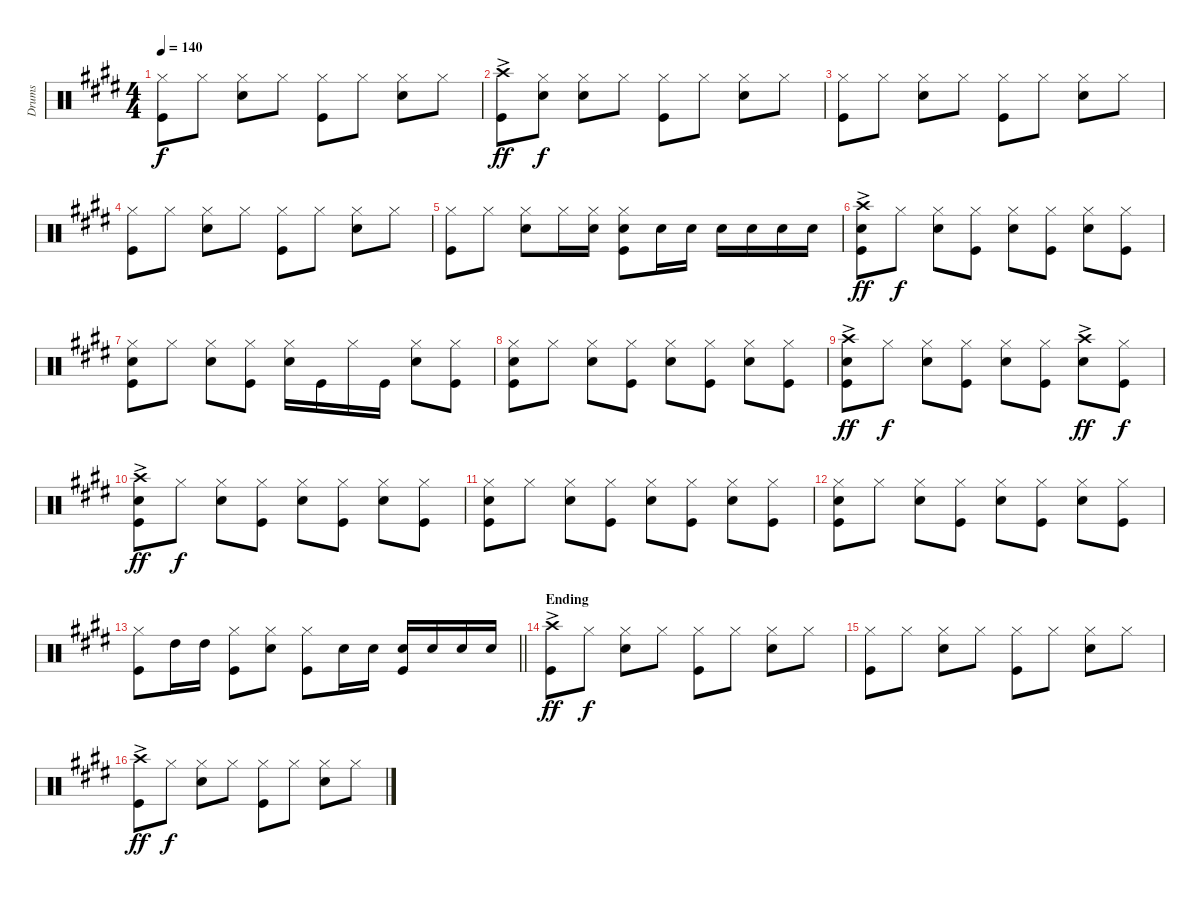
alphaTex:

\track ("Drums" "Drums") {instrument percussion}
\staff {score}
\articulation defaults
\ts (4 4)
\tempo 140
\clef neutral
\ks e
("Hi-Hat (closed)" "Kick (hit)").8{dy f} "Hi-Hat (closed)".8 ("Hi-Hat (closed)" "Snare (hit) 2").8 "Hi-Hat (closed)".8 ("Hi-Hat (closed)" "Kick (hit)").8 "Hi-Hat (closed)".8 ("Hi-Hat (closed)" "Snare (hit) 2").8 "Hi-Hat (closed)".8 |
("Crash high (hit)"{ac} "Kick (hit)").8{dy ff} ("Hi-Hat (closed)" "Snare (hit) 2").8{dy f} ("Hi-Hat (closed)" "Snare (hit) 2").8 "Hi-Hat (closed)".8 ("Hi-Hat (closed)" "Kick (hit)").8 "Hi-Hat (closed)".8 ("Hi-Hat (closed)" "Snare (hit) 2").8 "Hi-Hat (closed)".8 |
("Hi-Hat (closed)" "Kick (hit)").8 "Hi-Hat (closed)".8 ("Hi-Hat (closed)" "Snare (hit) 2").8 "Hi-Hat (closed)".8 ("Hi-Hat (closed)" "Kick (hit)").8 "Hi-Hat (closed)".8 ("Hi-Hat (closed)" "Snare (hit) 2").8 "Hi-Hat (closed)".8 |
("Hi-Hat (closed)" "Kick (hit)").8 "Hi-Hat (closed)".8 ("Hi-Hat (closed)" "Snare (hit) 2").8 "Hi-Hat (closed)".8 ("Hi-Hat (closed)" "Kick (hit)").8 "Hi-Hat (closed)".8 ("Hi-Hat (closed)" "Snare (hit) 2").8 "Hi-Hat (closed)".8 |
("Hi-Hat (closed)" "Kick (hit)").8 "Hi-Hat (closed)".8 ("Hi-Hat (closed)" "Snare (hit) 2").8 "Hi-Hat (closed)".16 ("Hi-Hat (closed)" "Snare (hit) 2").16 ("Snare (hit) 2" "Kick (hit)" "Hi-Hat (closed)").8 "Snare (hit) 2".16 "Snare (hit) 2".16 "Snare (hit) 2".16 "Snare (hit) 2".16 "Snare (hit) 2".16 "Snare (hit) 2".16 |
("Crash high (hit)"{ac} "Kick (hit)" "Snare (hit) 2").8{dy ff} "Hi-Hat (closed)".8{dy f} ("Snare (hit) 2" "Hi-Hat (closed)").8 ("Hi-Hat (closed)" "Kick (hit)").8 ("Hi-Hat (closed)" "Snare (hit) 2").8 ("Hi-Hat (closed)" "Kick (hit)").8 ("Hi-Hat (closed)" "Snare (hit) 2").8 ("Hi-Hat (closed)" "Kick (hit)").8 |
("Kick (hit)" "Snare (hit) 2" "Hi-Hat (closed)").8 "Hi-Hat (closed)".8 ("Hi-Hat (closed)" "Snare (hit) 2").8 ("Hi-Hat (closed)" "Kick (hit)").8 ("Hi-Hat (closed)" "Snare (hit) 2").16 "Kick (hit)".16 "Hi-Hat (closed)".16 "Kick (hit)".16 ("Snare (hit) 2" "Hi-Hat (closed)").8 ("Hi-Hat (closed)" "Kick (hit)").8 |
("Hi-Hat (closed)" "Kick (hit)" "Snare (hit) 2").8 "Hi-Hat (closed)".8 ("Hi-Hat (closed)" "Snare (hit) 2").8 ("Hi-Hat (closed)" "Kick (hit)").8 ("Hi-Hat (closed)" "Snare (hit) 2").8 ("Hi-Hat (closed)" "Kick (hit)").8 ("Snare (hit) 2" "Hi-Hat (closed)").8 ("Hi-Hat (closed)" "Kick (hit)").8 |
("Crash high (hit)"{ac} "Snare (hit) 2" "Kick (hit)").8{dy ff} "Hi-Hat (closed)".8{dy f} ("Hi-Hat (closed)" "Snare (hit) 2").8 ("Hi-Hat (closed)" "Kick (hit)").8 ("Hi-Hat (closed)" "Snare (hit) 2").8 ("Hi-Hat (closed)" "Kick (hit)").8 ("Crash high (hit)"{ac} "Snare (hit) 2").8{dy ff} ("Hi-Hat (closed)" "Kick (hit)").8{dy f} |
("Crash high (hit)"{ac} "Snare (hit) 2" "Kick (hit)").8{dy ff} "Hi-Hat (closed)".8{dy f} ("Hi-Hat (closed)" "Snare (hit) 2").8 ("Hi-Hat (closed)" "Kick (hit)").8 ("Hi-Hat (closed)" "Snare (hit) 2").8 ("Hi-Hat (closed)" "Kick (hit)").8 ("Hi-Hat (closed)" "Snare (hit) 2").8 ("Hi-Hat (closed)" "Kick (hit)").8 |
("Hi-Hat (closed)" "Snare (hit) 2" "Kick (hit)").8 "Hi-Hat (closed)".8 ("Hi-Hat (closed)" "Snare (hit) 2").8 ("Hi-Hat (closed)" "Kick (hit)").8 ("Hi-Hat (closed)" "Snare (hit) 2").8 ("Hi-Hat (closed)" "Kick (hit)").8 ("Hi-Hat (closed)" "Snare (hit) 2").8 ("Hi-Hat (closed)" "Kick (hit)").8 |
("Hi-Hat (closed)" "Snare (hit) 2" "Kick (hit)").8 "Hi-Hat (closed)".8 ("Hi-Hat (closed)" "Snare (hit) 2").8 ("Hi-Hat (closed)" "Kick (hit)").8 ("Hi-Hat (closed)" "Snare (hit) 2").8 ("Hi-Hat (closed)" "Kick (hit)").8 ("Hi-Hat (closed)" "Snare (hit) 2").8 ("Hi-Hat (closed)" "Kick (hit)").8 |
\barLineRight lightlight
("Hi-Hat (closed)" "Kick (hit)").8 "High Tom (hit)".16 "High Tom (hit)".16 ("Hi-Hat (closed)" "Kick (hit)").8 ("Hi-Hat (closed)" "Snare (hit) 2").8 ("Hi-Hat (closed)" "Kick (hit)").8 "Snare (hit) 2".16 "Snare (hit) 2".16 ("Snare (hit) 2" "Kick (hit)").16 "Snare (hit) 2".16 "Snare (hit) 2".16 "Snare (hit) 2".16 |
\section ("" "Ending")
("Crash high (hit)"{ac} "Kick (hit)").8{dy ff} "Hi-Hat (closed)".8{dy f} ("Hi-Hat (closed)" "Snare (hit) 2").8 "Hi-Hat (closed)".8 ("Hi-Hat (closed)" "Kick (hit)").8 "Hi-Hat (closed)".8 ("Hi-Hat (closed)" "Snare (hit) 2").8 "Hi-Hat (closed)".8 |
("Hi-Hat (closed)" "Kick (hit)").8 "Hi-Hat (closed)".8 ("Hi-Hat (closed)" "Snare (hit) 2").8 "Hi-Hat (closed)".8 ("Hi-Hat (closed)" "Kick (hit)").8 "Hi-Hat (closed)".8 ("Hi-Hat (closed)" "Snare (hit) 2").8 "Hi-Hat (closed)".8 |
("Crash high (hit)"{ac} "Kick (hit)").8{dy ff} "Hi-Hat (closed)".8{dy f} ("Hi-Hat (closed)" "Snare (hit) 2").8 "Hi-Hat (closed)".8 ("Hi-Hat (closed)" "Kick (hit)").8 "Hi-Hat (closed)".8 ("Hi-Hat (closed)" "Snare (hit) 2").8 "Hi-Hat (closed)".8
